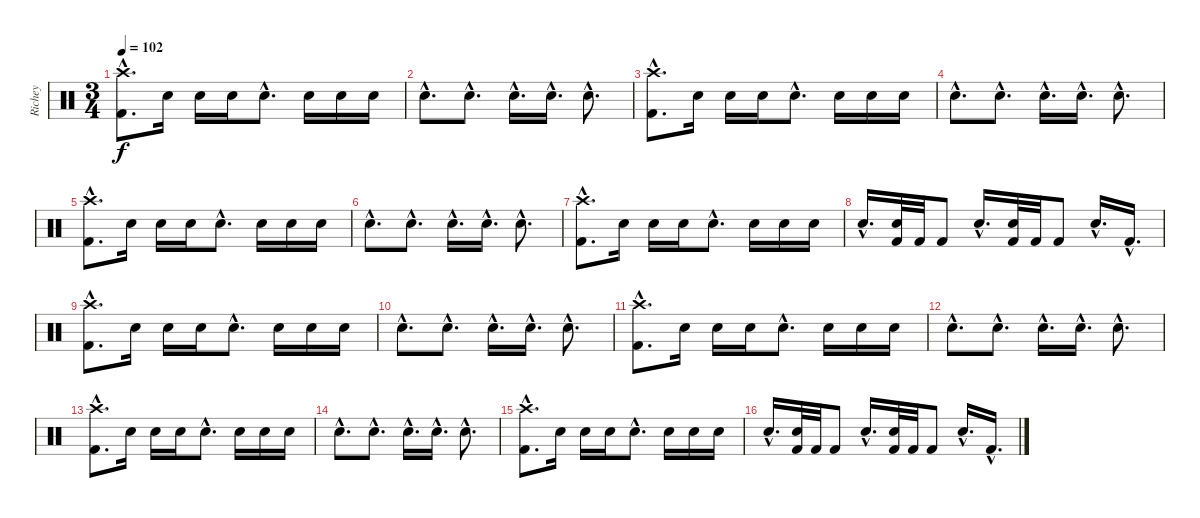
\track ("Richey" "Richey") {instrument percussion}
\staff {score}
\articulation defaults
\ts (3 4)
\tempo 102
\clef neutral
\ks c
("Crash high (hit)"{hac} "Kick (hit) 2"{hac}).8{d dy f} "Snare (hit) 2".16 "Snare (hit) 2".16 "Snare (hit) 2".16 "Snare (hit) 2"{hac}.8{d} "Snare (hit) 2".16 "Snare (hit) 2".16 "Snare (hit) 2".16 |
"Snare (hit) 2"{hac}.8{d} "Snare (hit) 2"{hac}.8{d} "Snare (hit) 2"{hac}.16{d} "Snare (hit) 2"{hac}.16{d} "Snare (hit) 2"{hac}.8{d} |
("Crash high (hit)"{hac} "Kick (hit) 2"{hac}).8{d} "Snare (hit) 2".16 "Snare (hit) 2".16 "Snare (hit) 2".16 "Snare (hit) 2"{hac}.8{d} "Snare (hit) 2".16 "Snare (hit) 2".16 "Snare (hit) 2".16 |
"Snare (hit) 2"{hac}.8{d} "Snare (hit) 2"{hac}.8{d} "Snare (hit) 2"{hac}.16{d} "Snare (hit) 2"{hac}.16{d} "Snare (hit) 2"{hac}.8{d} |
("Crash high (hit)"{hac} "Kick (hit) 2"{hac}).8{d} "Snare (hit) 2".16 "Snare (hit) 2".16 "Snare (hit) 2".16 "Snare (hit) 2"{hac}.8{d} "Snare (hit) 2".16 "Snare (hit) 2".16 "Snare (hit) 2".16 |
"Snare (hit) 2"{hac}.8{d} "Snare (hit) 2"{hac}.8{d} "Snare (hit) 2"{hac}.16{d} "Snare (hit) 2"{hac}.16{d} "Snare (hit) 2"{hac}.8{d} |
("Crash high (hit)"{hac} "Kick (hit) 2"{hac}).8{d} "Snare (hit) 2".16 "Snare (hit) 2".16 "Snare (hit) 2".16 "Snare (hit) 2"{hac}.8{d} "Snare (hit) 2".16 "Snare (hit) 2".16 "Snare (hit) 2".16 |
"Snare (hit) 2"{hac}.16{d} ("Snare (hit) 2" "Kick (hit) 2").32 "Kick (hit) 2".32 "Kick (hit) 2".8 "Snare (hit) 2"{hac}.16{d} ("Snare (hit) 2" "Kick (hit) 2").32 "Kick (hit) 2".32 "Kick (hit) 2".8 "Snare (hit) 2"{hac}.16{d} "Kick (hit) 2"{hac}.16{d} |
("Crash high (hit)"{hac} "Kick (hit) 2"{hac}).8{d} "Snare (hit) 2".16 "Snare (hit) 2".16 "Snare (hit) 2".16 "Snare (hit) 2"{hac}.8{d} "Snare (hit) 2".16 "Snare (hit) 2".16 "Snare (hit) 2".16 |
"Snare (hit) 2"{hac}.8{d} "Snare (hit) 2"{hac}.8{d} "Snare (hit) 2"{hac}.16{d} "Snare (hit) 2"{hac}.16{d} "Snare (hit) 2"{hac}.8{d} |
("Crash high (hit)"{hac} "Kick (hit) 2"{hac}).8{d} "Snare (hit) 2".16 "Snare (hit) 2".16 "Snare (hit) 2".16 "Snare (hit) 2"{hac}.8{d} "Snare (hit) 2".16 "Snare (hit) 2".16 "Snare (hit) 2".16 |
"Snare (hit) 2"{hac}.8{d} "Snare (hit) 2"{hac}.8{d} "Snare (hit) 2"{hac}.16{d} "Snare (hit) 2"{hac}.16{d} "Snare (hit) 2"{hac}.8{d} |
("Crash high (hit)"{hac} "Kick (hit) 2"{hac}).8{d} "Snare (hit) 2".16 "Snare (hit) 2".16 "Snare (hit) 2".16 "Snare (hit) 2"{hac}.8{d} "Snare (hit) 2".16 "Snare (hit) 2".16 "Snare (hit) 2".16 |
"Snare (hit) 2"{hac}.8{d} "Snare (hit) 2"{hac}.8{d} "Snare (hit) 2"{hac}.16{d} "Snare (hit) 2"{hac}.16{d} "Snare (hit) 2"{hac}.8{d} |
("Crash high (hit)"{hac} "Kick (hit) 2"{hac}).8{d} "Snare (hit) 2".16 "Snare (hit) 2".16 "Snare (hit) 2".16 "Snare (hit) 2"{hac}.8{d} "Snare (hit) 2".16 "Snare (hit) 2".16 "Snare (hit) 2".16 |
"Snare (hit) 2"{hac}.16{d} ("Snare (hit) 2" "Kick (hit) 2").32 "Kick (hit) 2".32 "Kick (hit) 2".8 "Snare (hit) 2"{hac}.16{d} ("Snare (hit) 2" "Kick (hit) 2").32 "Kick (hit) 2".32 "Kick (hit) 2".8 "Snare (hit) 2"{hac}.16{d} "Kick (hit) 2"{hac}.16{d}
